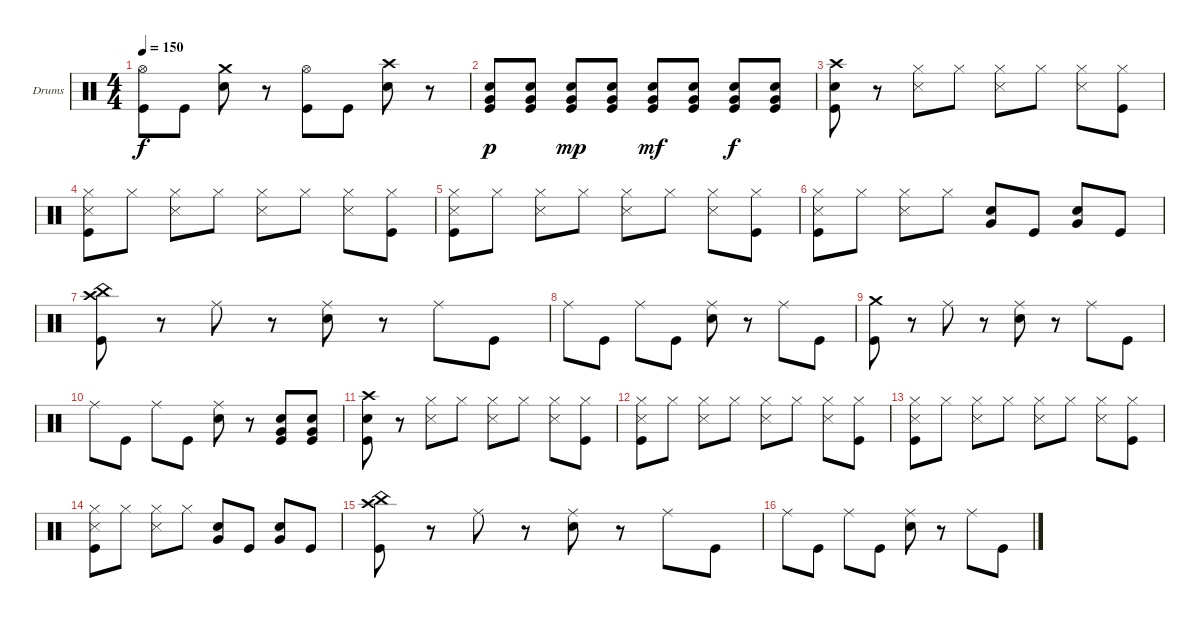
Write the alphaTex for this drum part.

\defaultSystemsLayout 4
\bracketExtendMode groupsimilarinstruments
\firstSystemTrackNameOrientation horizontal
\otherSystemsTrackNameOrientation horizontal
\track ("Drumkit" "Drums") {instrument percussion}
\staff {score}
\articulation defaults
\ts (4 4)
\tempo 150
\clef neutral
\ks c
("Kick (hit)" "Hi-Hat (open)").8{dy f} "Kick (hit)".8 ("Snare (hit) 2" "Crash medium (hit)").8 r.8 ("Kick (hit)" "Hi-Hat (open)").8 "Kick (hit)".8 ("Snare (hit) 2" "Crash high (hit)").8 r.8 |
("Kick (hit)" "Very Low Tom (hit)" "Snare (hit) 2").8{dy p} ("Kick (hit)" "Very Low Tom (hit)" "Snare (hit) 2").8 ("Kick (hit)" "Very Low Tom (hit)" "Snare (hit) 2").8{dy mp} ("Kick (hit)" "Very Low Tom (hit)" "Snare (hit) 2").8 ("Kick (hit)" "Very Low Tom (hit)" "Snare (hit) 2").8{dy mf} ("Kick (hit)" "Very Low Tom (hit)" "Snare (hit) 2").8 ("Kick (hit)" "Very Low Tom (hit)" "Snare (hit) 2").8{dy f} ("Kick (hit)" "Very Low Tom (hit)" "Snare (hit) 2").8 |
("Snare (hit) 2" "Kick (hit)" "Crash high (hit)").8 r.8 ("Hi-Hat (closed)" "Snare (side stick) 3").8 "Hi-Hat (closed)".8 ("Hi-Hat (closed)" "Snare (side stick) 3").8 "Hi-Hat (closed)".8 ("Hi-Hat (closed)" "Snare (side stick) 3").8 ("Hi-Hat (closed)" "Kick (hit)").8 |
("Hi-Hat (closed)" "Snare (side stick) 3" "Kick (hit)").8 "Hi-Hat (closed)".8 ("Hi-Hat (closed)" "Snare (side stick) 3").8 "Hi-Hat (closed)".8 ("Hi-Hat (closed)" "Snare (side stick) 3").8 "Hi-Hat (closed)".8 ("Hi-Hat (closed)" "Snare (side stick) 3").8 ("Hi-Hat (closed)" "Kick (hit)").8 |
("Hi-Hat (closed)" "Snare (side stick) 3" "Kick (hit)").8 "Hi-Hat (closed)".8 ("Hi-Hat (closed)" "Snare (side stick) 3").8 "Hi-Hat (closed)".8 ("Hi-Hat (closed)" "Snare (side stick) 3").8 "Hi-Hat (closed)".8 ("Hi-Hat (closed)" "Snare (side stick) 3").8 ("Hi-Hat (closed)" "Kick (hit)").8 |
("Hi-Hat (closed)" "Snare (side stick) 3" "Kick (hit)").8 "Hi-Hat (closed)".8 ("Hi-Hat (closed)" "Snare (side stick) 3").8 "Hi-Hat (closed)".8 ("Snare (hit) 2" "Very Low Tom (hit)").8 "Kick (hit)".8 ("Very Low Tom (hit)" "Snare (hit) 2").8 "Kick (hit)".8 |
("China (hit)" "Crash high (hit)" "Kick (hit)").8 r.8 "Ride (middle)".8 r.8 ("Ride (middle)" "Snare (hit) 2").8 r.8 "Ride (middle)".8 "Kick (hit)".8 |
"Ride (middle)".8 "Kick (hit)".8 "Ride (middle)".8 "Kick (hit)".8 ("Ride (middle)" "Snare (hit) 2").8 r.8 "Ride (middle)".8 "Kick (hit)".8 |
("Crash medium (hit)" "Kick (hit)").8 r.8 "Ride (middle)".8 r.8 ("Ride (middle)" "Snare (hit) 2").8 r.8 "Ride (middle)".8 "Kick (hit)".8 |
"Ride (middle)".8 "Kick (hit)".8 "Ride (middle)".8 "Kick (hit)".8 ("Ride (middle)" "Snare (hit) 2").8 r.8 ("Kick (hit)" "Very Low Tom (hit)" "Snare (hit) 2").8 ("Kick (hit)" "Very Low Tom (hit)" "Snare (hit) 2").8 |
("Snare (hit) 2" "Kick (hit)" "Crash high (hit)").8 r.8 ("Hi-Hat (closed)" "Snare (side stick) 3").8 "Hi-Hat (closed)".8 ("Hi-Hat (closed)" "Snare (side stick) 3").8 "Hi-Hat (closed)".8 ("Hi-Hat (closed)" "Snare (side stick) 3").8 ("Hi-Hat (closed)" "Kick (hit)").8 |
("Hi-Hat (closed)" "Snare (side stick) 3" "Kick (hit)").8 "Hi-Hat (closed)".8 ("Hi-Hat (closed)" "Snare (side stick) 3").8 "Hi-Hat (closed)".8 ("Hi-Hat (closed)" "Snare (side stick) 3").8 "Hi-Hat (closed)".8 ("Hi-Hat (closed)" "Snare (side stick) 3").8 ("Hi-Hat (closed)" "Kick (hit)").8 |
("Hi-Hat (closed)" "Snare (side stick) 3" "Kick (hit)").8 "Hi-Hat (closed)".8 ("Hi-Hat (closed)" "Snare (side stick) 3").8 "Hi-Hat (closed)".8 ("Hi-Hat (closed)" "Snare (side stick) 3").8 "Hi-Hat (closed)".8 ("Hi-Hat (closed)" "Snare (side stick) 3").8 ("Hi-Hat (closed)" "Kick (hit)").8 |
("Hi-Hat (closed)" "Snare (side stick) 3" "Kick (hit)").8 "Hi-Hat (closed)".8 ("Hi-Hat (closed)" "Snare (side stick) 3").8 "Hi-Hat (closed)".8 ("Snare (hit) 2" "Very Low Tom (hit)").8 "Kick (hit)".8 ("Very Low Tom (hit)" "Snare (hit) 2").8 "Kick (hit)".8 |
("China (hit)" "Crash high (hit)" "Kick (hit)").8 r.8 "Ride (middle)".8 r.8 ("Ride (middle)" "Snare (hit) 2").8 r.8 "Ride (middle)".8 "Kick (hit)".8 |
"Ride (middle)".8 "Kick (hit)".8 "Ride (middle)".8 "Kick (hit)".8 ("Ride (middle)" "Snare (hit) 2").8 r.8 "Ride (middle)".8 "Kick (hit)".8
